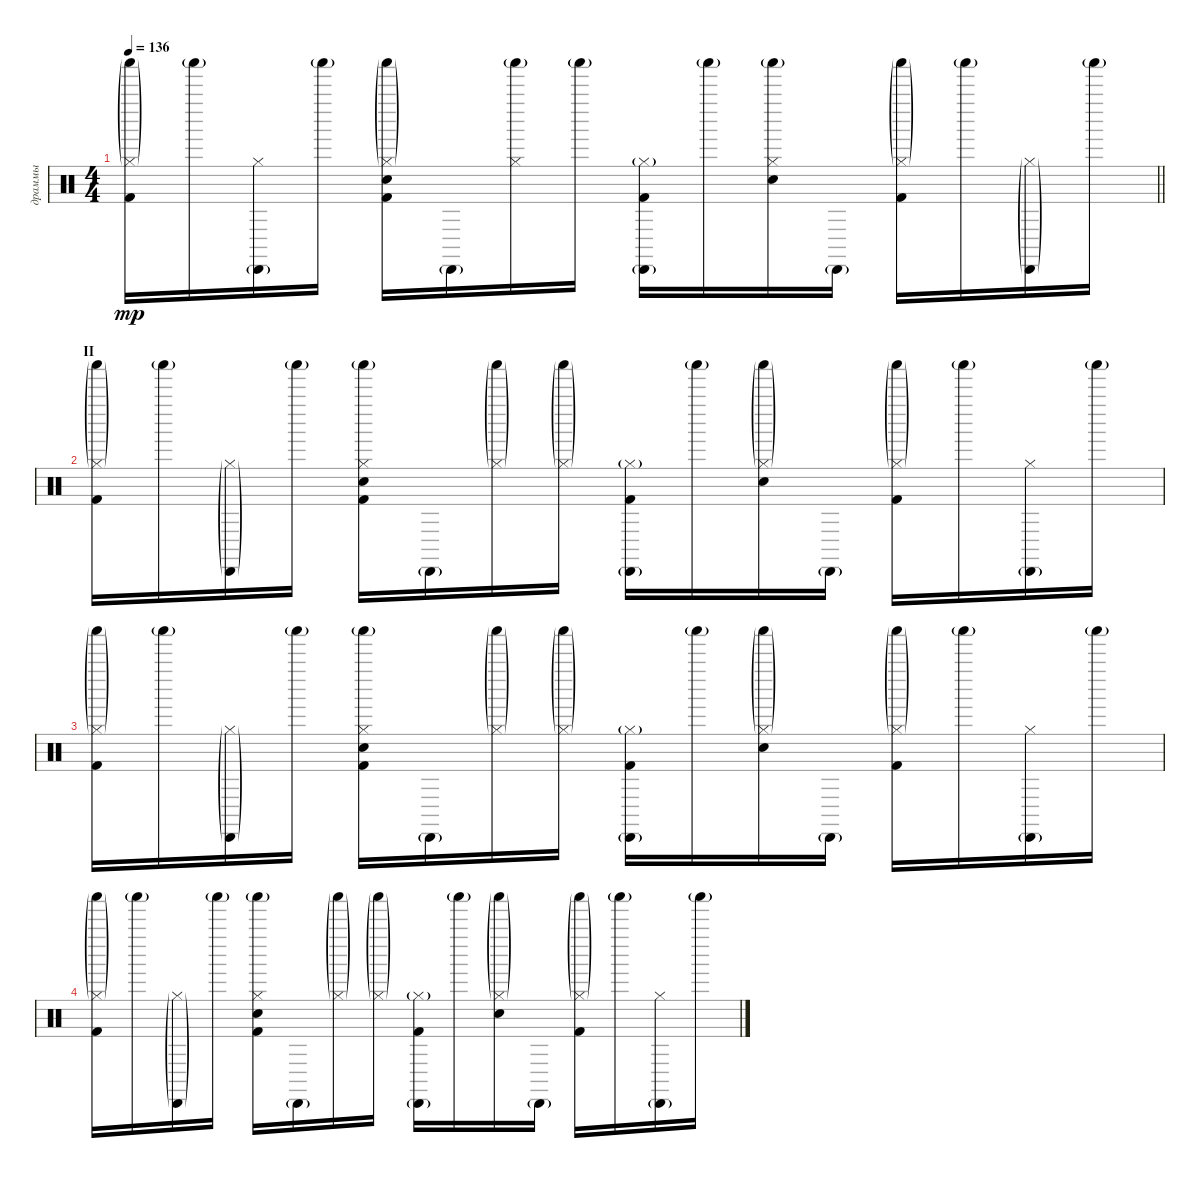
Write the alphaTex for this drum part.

\track ("драммы" "драммы") {instrument percussion}
\staff {score}
\articulation defaults
\ts (4 4)
\tempo 136
\clef neutral
\barLineRight lightlight
\ks c
("Shaker (hit)"{g} "Kick (hit) 2" "Hi-Hat (closed)"{g}).16{dy mp} "Shaker (hit)"{g}.16 ("Cabasa (hit)"{g} "Hi-Hat (closed)").16 "Shaker (hit)"{g}.16 ("Shaker (hit)"{g} "Snare (hit) 2" "Kick (hit) 2" "Hi-Hat (closed)"{g}).16 "Cabasa (hit)"{g}.16 ("Shaker (hit)"{g} "Hi-Hat (closed)").16 "Shaker (hit)"{g}.16 ("Cabasa (hit)"{g} "Kick (hit) 2" "Hi-Hat (closed)"{g}).16 "Shaker (hit)"{g}.16 ("Shaker (hit)"{g} "Snare (hit) 2" "Hi-Hat (closed)").16 "Cabasa (hit)"{g}.16 ("Shaker (hit)"{g} "Kick (hit) 2" "Hi-Hat (closed)"{g}).16 "Shaker (hit)"{g}.16 ("Cabasa (hit)"{g} "Hi-Hat (closed)"{g}).16 "Shaker (hit)"{g}.16 |
\section ("" "II")
("Shaker (hit)"{g} "Kick (hit) 2" "Hi-Hat (closed)"{g}).16 "Shaker (hit)"{g}.16 ("Cabasa (hit)"{g} "Hi-Hat (closed)"{g}).16 "Shaker (hit)"{g}.16 ("Shaker (hit)"{g} "Snare (hit) 2" "Kick (hit) 2" "Hi-Hat (closed)").16 "Cabasa (hit)"{g}.16 ("Shaker (hit)"{g} "Hi-Hat (closed)"{g}).16 ("Shaker (hit)"{g} "Hi-Hat (closed)"{g}).16 ("Cabasa (hit)"{g} "Kick (hit) 2" "Hi-Hat (closed)"{g}).16 "Shaker (hit)"{g}.16 ("Shaker (hit)"{g} "Snare (hit) 2" "Hi-Hat (closed)"{g}).16 "Cabasa (hit)"{g}.16 ("Shaker (hit)"{g} "Kick (hit) 2" "Hi-Hat (closed)"{g}).16 "Shaker (hit)"{g}.16 ("Cabasa (hit)"{g} "Hi-Hat (closed)").16 "Shaker (hit)"{g}.16 |
("Shaker (hit)"{g} "Kick (hit) 2" "Hi-Hat (closed)"{g}).16 "Shaker (hit)"{g}.16 ("Cabasa (hit)"{g} "Hi-Hat (closed)"{g}).16 "Shaker (hit)"{g}.16 ("Shaker (hit)"{g} "Snare (hit) 2" "Kick (hit) 2" "Hi-Hat (closed)").16 "Cabasa (hit)"{g}.16 ("Shaker (hit)"{g} "Hi-Hat (closed)"{g}).16 ("Shaker (hit)"{g} "Hi-Hat (closed)"{g}).16 ("Cabasa (hit)"{g} "Kick (hit) 2" "Hi-Hat (closed)"{g}).16 "Shaker (hit)"{g}.16 ("Shaker (hit)"{g} "Snare (hit) 2" "Hi-Hat (closed)"{g}).16 "Cabasa (hit)"{g}.16 ("Shaker (hit)"{g} "Kick (hit) 2" "Hi-Hat (closed)"{g}).16 "Shaker (hit)"{g}.16 ("Cabasa (hit)"{g} "Hi-Hat (closed)").16 "Shaker (hit)"{g}.16 |
("Shaker (hit)"{g} "Kick (hit) 2" "Hi-Hat (closed)"{g}).16 "Shaker (hit)"{g}.16 ("Cabasa (hit)"{g} "Hi-Hat (closed)"{g}).16 "Shaker (hit)"{g}.16 ("Shaker (hit)"{g} "Snare (hit) 2" "Kick (hit) 2" "Hi-Hat (closed)").16 "Cabasa (hit)"{g}.16 ("Shaker (hit)"{g} "Hi-Hat (closed)"{g}).16 ("Shaker (hit)"{g} "Hi-Hat (closed)"{g}).16 ("Cabasa (hit)"{g} "Kick (hit) 2" "Hi-Hat (closed)"{g}).16 "Shaker (hit)"{g}.16 ("Shaker (hit)"{g} "Snare (hit) 2" "Hi-Hat (closed)"{g}).16 "Cabasa (hit)"{g}.16 ("Shaker (hit)"{g} "Kick (hit) 2" "Hi-Hat (closed)"{g}).16 "Shaker (hit)"{g}.16 ("Cabasa (hit)"{g} "Hi-Hat (closed)").16 "Shaker (hit)"{g}.16
